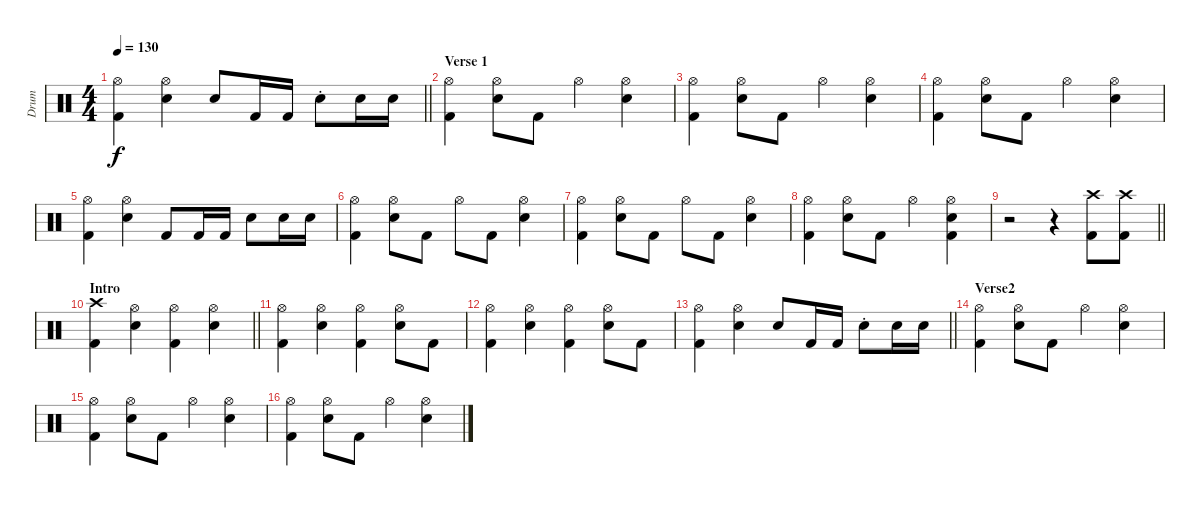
\track ("Drum" "Drum") {instrument percussion}
\staff {score}
\articulation defaults
\ts (4 4)
\tempo 130
\clef neutral
\barLineRight lightlight
\ks c
("Hi-Hat (open)" "Kick (hit) 2").4{dy f} ("Hi-Hat (open)" "Electric Snare (hit)").4 "Electric Snare (hit)".8 "Kick (hit) 2".16 "Kick (hit) 2".16 "Electric Snare (hit)"{st}.8 "Electric Snare (hit)".16 "Electric Snare (hit)".16 |
\section ("" "Verse 1")
("Hi-Hat (open)" "Kick (hit) 2").4 ("Hi-Hat (open)" "Electric Snare (hit)").8 "Kick (hit) 2".8 "Hi-Hat (open)".4 ("Hi-Hat (open)" "Electric Snare (hit)").4 |
("Hi-Hat (open)" "Kick (hit) 2").4 ("Hi-Hat (open)" "Electric Snare (hit)").8 "Kick (hit) 2".8 "Hi-Hat (open)".4 ("Hi-Hat (open)" "Electric Snare (hit)").4 |
("Hi-Hat (open)" "Kick (hit) 2").4 ("Hi-Hat (open)" "Electric Snare (hit)").8 "Kick (hit) 2".8 "Hi-Hat (open)".4 ("Hi-Hat (open)" "Electric Snare (hit)").4 |
("Hi-Hat (open)" "Kick (hit) 2").4 ("Hi-Hat (open)" "Electric Snare (hit)").4 "Kick (hit) 2".8 "Kick (hit) 2".16 "Kick (hit) 2".16 "Electric Snare (hit)".8 "Electric Snare (hit)".16 "Electric Snare (hit)".16 |
("Hi-Hat (open)" "Kick (hit) 2").4 ("Hi-Hat (open)" "Electric Snare (hit)").8 "Kick (hit) 2".8 "Hi-Hat (open)".8 "Kick (hit) 2".8 ("Hi-Hat (open)" "Electric Snare (hit)").4 |
("Hi-Hat (open)" "Kick (hit) 2").4 ("Hi-Hat (open)" "Electric Snare (hit)").8 "Kick (hit) 2".8 "Hi-Hat (open)".8 "Kick (hit) 2".8 ("Hi-Hat (open)" "Electric Snare (hit)").4 |
("Hi-Hat (open)" "Kick (hit) 2").4 ("Hi-Hat (open)" "Electric Snare (hit)").8 "Kick (hit) 2".8 "Hi-Hat (open)".4 ("Hi-Hat (open)" "Electric Snare (hit)" "Kick (hit) 2").4 |
\barLineRight lightlight
r.2 r.4 ("Crash high (hit)" "Kick (hit) 2").8 ("Crash high (hit)" "Kick (hit) 2").8 |
\section ("" "Intro")
\barLineRight lightlight
("Crash high (hit)" "Kick (hit) 2").4 ("Hi-Hat (open)" "Electric Snare (hit)").4 ("Hi-Hat (open)" "Kick (hit) 2").4 ("Hi-Hat (open)" "Electric Snare (hit)").4 |
\section ("" "")
("Hi-Hat (open)" "Kick (hit) 2").4 ("Hi-Hat (open)" "Electric Snare (hit)").4 ("Hi-Hat (open)" "Kick (hit) 2").4 ("Hi-Hat (open)" "Electric Snare (hit)").8 "Kick (hit) 2".8 |
("Hi-Hat (open)" "Kick (hit) 2").4 ("Hi-Hat (open)" "Electric Snare (hit)").4 ("Hi-Hat (open)" "Kick (hit) 2").4 ("Hi-Hat (open)" "Electric Snare (hit)").8 "Kick (hit) 2".8 |
\barLineRight lightlight
("Hi-Hat (open)" "Kick (hit) 2").4 ("Hi-Hat (open)" "Electric Snare (hit)").4 "Electric Snare (hit)".8 "Kick (hit) 2".16 "Kick (hit) 2".16 "Electric Snare (hit)"{st}.8 "Electric Snare (hit)".16 "Electric Snare (hit)".16 |
\section ("" "Verse2")
("Hi-Hat (open)" "Kick (hit) 2").4 ("Hi-Hat (open)" "Electric Snare (hit)").8 "Kick (hit) 2".8 "Hi-Hat (open)".4 ("Hi-Hat (open)" "Electric Snare (hit)").4 |
("Hi-Hat (open)" "Kick (hit) 2").4 ("Hi-Hat (open)" "Electric Snare (hit)").8 "Kick (hit) 2".8 "Hi-Hat (open)".4 ("Hi-Hat (open)" "Electric Snare (hit)").4 |
("Hi-Hat (open)" "Kick (hit) 2").4 ("Hi-Hat (open)" "Electric Snare (hit)").8 "Kick (hit) 2".8 "Hi-Hat (open)".4 ("Hi-Hat (open)" "Electric Snare (hit)").4
